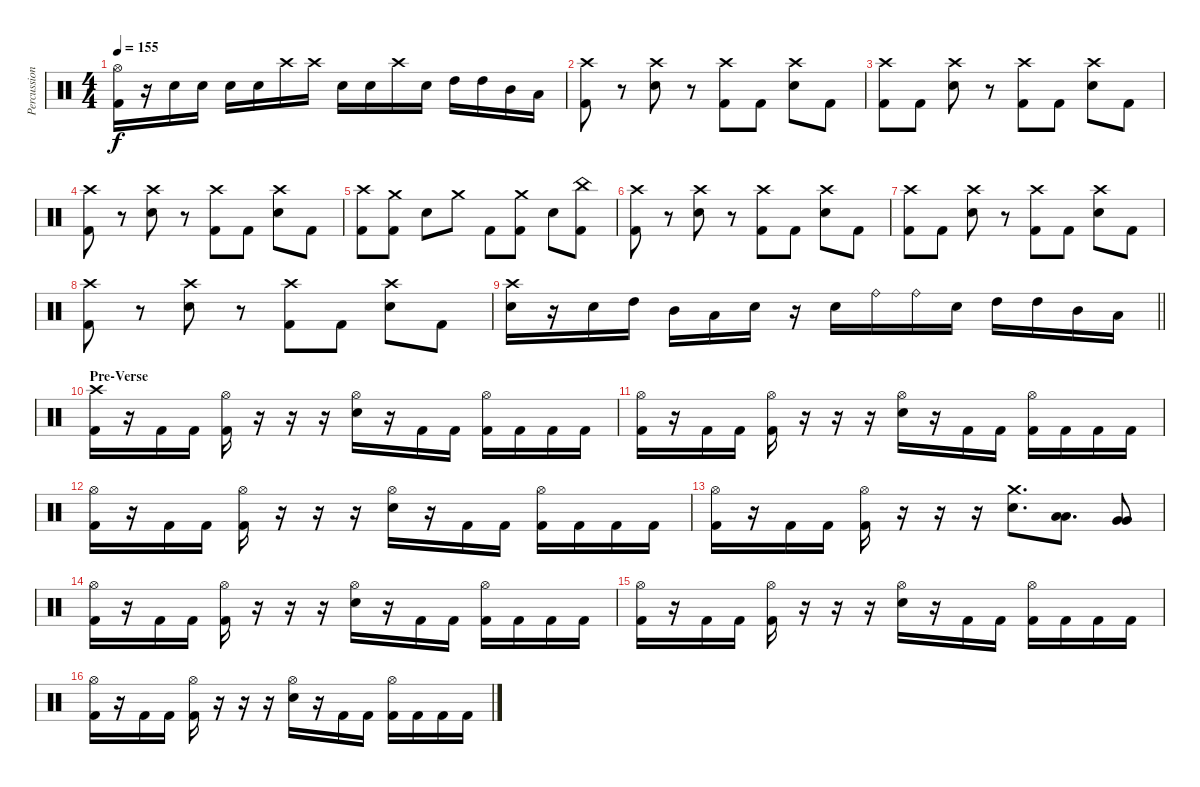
\track ("Percussion" "Percussion") {instrument percussion}
\staff {score}
\articulation defaults
\ts (4 4)
\tempo 155
\clef neutral
\ks c
("Hi-Hat (open)" "Kick (hit) 2").16{dy f} r.16 "Snare (hit) 2".16 "Snare (hit) 2".16 "Snare (hit) 2".16 "Snare (hit) 2".16 "Crash high (hit)".16 "Crash high (hit)".16 "Snare (hit) 2".16 "Snare (hit) 2".16 "Crash high (hit)".16 "Snare (hit) 2".16 "High Tom (hit)".16 "High Tom (hit)".16 "Mid Tom (hit)".16 "Low Tom (hit)".16 |
("Crash high (hit)" "Kick (hit) 2").8 r.8 ("Crash high (hit)" "Snare (hit) 2").8 r.8 ("Crash high (hit)" "Kick (hit) 2").8 "Kick (hit) 2".8 ("Crash high (hit)" "Snare (hit) 2").8 "Kick (hit) 2".8 |
("Crash high (hit)" "Kick (hit) 2").8 "Kick (hit) 2".8 ("Crash high (hit)" "Snare (hit) 2").8 r.8 ("Crash high (hit)" "Kick (hit) 2").8 "Kick (hit) 2".8 ("Crash high (hit)" "Snare (hit) 2").8 "Kick (hit) 2".8 |
("Crash high (hit)" "Kick (hit) 2").8 r.8 ("Crash high (hit)" "Snare (hit) 2").8 r.8 ("Crash high (hit)" "Kick (hit) 2").8 "Kick (hit) 2".8 ("Crash high (hit)" "Snare (hit) 2").8 "Kick (hit) 2".8 |
("Crash high (hit)" "Kick (hit) 2").8 ("Crash medium (hit)" "Kick (hit) 2").8 "Snare (hit) 2".8 "Crash medium (hit)".8 "Kick (hit) 2".8 ("Crash medium (hit)" "Kick (hit) 2").8 "Snare (hit) 2".8 ("China (hit)" "Kick (hit) 2").8 |
("Crash high (hit)" "Kick (hit) 2").8 r.8 ("Crash high (hit)" "Snare (hit) 2").8 r.8 ("Crash high (hit)" "Kick (hit) 2").8 "Kick (hit) 2".8 ("Crash high (hit)" "Snare (hit) 2").8 "Kick (hit) 2".8 |
("Crash high (hit)" "Kick (hit) 2").8 "Kick (hit) 2".8 ("Crash high (hit)" "Snare (hit) 2").8 r.8 ("Crash high (hit)" "Kick (hit) 2").8 "Kick (hit) 2".8 ("Crash high (hit)" "Snare (hit) 2").8 "Kick (hit) 2".8 |
("Crash high (hit)" "Kick (hit) 2").8 r.8 ("Crash high (hit)" "Snare (hit) 2").8 r.8 ("Crash high (hit)" "Kick (hit) 2").8 "Kick (hit) 2".8 ("Crash high (hit)" "Snare (hit) 2").8 "Kick (hit) 2".8 |
\barLineRight lightlight
("Crash high (hit)" "Snare (hit) 2").16 r.16 "Snare (hit) 2".16 "High Tom (hit)".16 "Mid Tom (hit)".16 "Low Tom (hit)".16 "Snare (hit) 2".16 r.16 "Snare (hit) 2".16 "Ride (bell)".16 "Ride (bell)".16 "Snare (hit) 2".16 "High Tom (hit)".16 "High Tom (hit)".16 "Mid Tom (hit)".16 "Low Tom (hit)".16 |
\section ("" "Pre-Verse")
("Crash high (hit)" "Kick (hit) 2").16 r.16 "Kick (hit) 2".16 "Kick (hit) 2".16 ("Hi-Hat (open)" "Kick (hit) 2").16 r.16 r.16 r.16 ("Hi-Hat (open)" "Snare (hit) 2").16 r.16 "Kick (hit) 2".16 "Kick (hit) 2".16 ("Hi-Hat (open)" "Kick (hit) 2").16 "Kick (hit) 2".16 "Kick (hit) 2".16 "Kick (hit) 2".16 |
("Hi-Hat (open)" "Kick (hit) 2").16 r.16 "Kick (hit) 2".16 "Kick (hit) 2".16 ("Hi-Hat (open)" "Kick (hit) 2").16 r.16 r.16 r.16 ("Hi-Hat (open)" "Snare (hit) 2").16 r.16 "Kick (hit) 2".16 "Kick (hit) 2".16 ("Hi-Hat (open)" "Kick (hit) 2").16 "Kick (hit) 2".16 "Kick (hit) 2".16 "Kick (hit) 2".16 |
("Hi-Hat (open)" "Kick (hit) 2").16 r.16 "Kick (hit) 2".16 "Kick (hit) 2".16 ("Hi-Hat (open)" "Kick (hit) 2").16 r.16 r.16 r.16 ("Hi-Hat (open)" "Snare (hit) 2").16 r.16 "Kick (hit) 2".16 "Kick (hit) 2".16 ("Hi-Hat (open)" "Kick (hit) 2").16 "Kick (hit) 2".16 "Kick (hit) 2".16 "Kick (hit) 2".16 |
("Hi-Hat (open)" "Kick (hit) 2").16 r.16 "Kick (hit) 2".16 "Kick (hit) 2".16 ("Hi-Hat (open)" "Kick (hit) 2").16 r.16 r.16 r.16 ("Crash medium (hit)" "Snare (hit) 2").8{d} ("Low Tom (hit)" "Low Tom (hit)").8{d} ("Very Low Tom (hit)" "Very Low Tom (hit)").8 |
("Hi-Hat (open)" "Kick (hit) 2").16 r.16 "Kick (hit) 2".16 "Kick (hit) 2".16 ("Hi-Hat (open)" "Kick (hit) 2").16 r.16 r.16 r.16 ("Hi-Hat (open)" "Snare (hit) 2").16 r.16 "Kick (hit) 2".16 "Kick (hit) 2".16 ("Hi-Hat (open)" "Kick (hit) 2").16 "Kick (hit) 2".16 "Kick (hit) 2".16 "Kick (hit) 2".16 |
("Hi-Hat (open)" "Kick (hit) 2").16 r.16 "Kick (hit) 2".16 "Kick (hit) 2".16 ("Hi-Hat (open)" "Kick (hit) 2").16 r.16 r.16 r.16 ("Hi-Hat (open)" "Snare (hit) 2").16 r.16 "Kick (hit) 2".16 "Kick (hit) 2".16 ("Hi-Hat (open)" "Kick (hit) 2").16 "Kick (hit) 2".16 "Kick (hit) 2".16 "Kick (hit) 2".16 |
("Hi-Hat (open)" "Kick (hit) 2").16 r.16 "Kick (hit) 2".16 "Kick (hit) 2".16 ("Hi-Hat (open)" "Kick (hit) 2").16 r.16 r.16 r.16 ("Hi-Hat (open)" "Snare (hit) 2").16 r.16 "Kick (hit) 2".16 "Kick (hit) 2".16 ("Hi-Hat (open)" "Kick (hit) 2").16 "Kick (hit) 2".16 "Kick (hit) 2".16 "Kick (hit) 2".16
